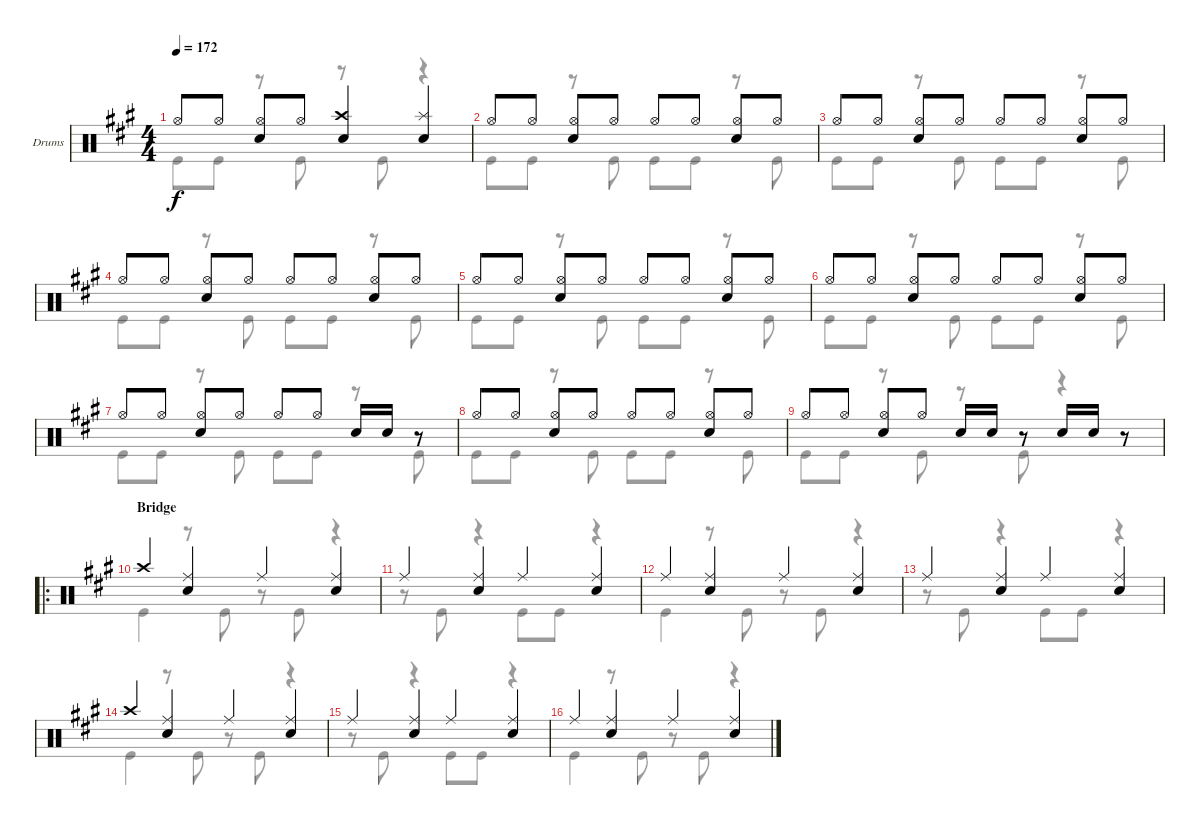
\defaultSystemsLayout 4
\bracketExtendMode groupsimilarinstruments
\firstSystemTrackNameOrientation horizontal
\otherSystemsTrackNameOrientation horizontal
\track ("Taylor Hawkins" "Drums") {instrument percussion}
\staff {score}
\articulation defaults
\voice
\ts (4 4)
\tempo 172
\clef neutral
\ks a "Hi-Hat (open)".8{dy f} "Hi-Hat (open)".8
("Hi-Hat (open)" "Snare (hit) 2").8 "Hi-Hat (open)".8 ("Snare (hit) 2" "Crash high (hit)").4 ("Snare (hit) 2" "Splash (hit)").4 |
"Hi-Hat (open)".8 "Hi-Hat (open)".8 ("Hi-Hat (open)" "Snare (hit) 2").8 "Hi-Hat (open)".8 "Hi-Hat (open)".8 "Hi-Hat (open)".8 ("Hi-Hat (open)" "Snare (hit) 2").8 "Hi-Hat (open)".8 |
"Hi-Hat (open)".8 "Hi-Hat (open)".8 ("Hi-Hat (open)" "Snare (hit) 2").8 "Hi-Hat (open)".8 "Hi-Hat (open)".8 "Hi-Hat (open)".8 ("Hi-Hat (open)" "Snare (hit) 2").8 "Hi-Hat (open)".8 |
"Hi-Hat (open)".8 "Hi-Hat (open)".8 ("Hi-Hat (open)" "Snare (hit) 2").8 "Hi-Hat (open)".8 "Hi-Hat (open)".8 "Hi-Hat (open)".8 ("Hi-Hat (open)" "Snare (hit) 2").8 "Hi-Hat (open)".8 |
"Hi-Hat (open)".8 "Hi-Hat (open)".8 ("Hi-Hat (open)" "Snare (hit) 2").8 "Hi-Hat (open)".8 "Hi-Hat (open)".8 "Hi-Hat (open)".8 ("Snare (hit) 2" "Hi-Hat (open)").8 "Hi-Hat (open)".8 |
"Hi-Hat (open)".8 "Hi-Hat (open)".8 ("Hi-Hat (open)" "Snare (hit) 2").8 "Hi-Hat (open)".8 "Hi-Hat (open)".8 "Hi-Hat (open)".8 ("Hi-Hat (open)" "Snare (hit) 2").8 "Hi-Hat (open)".8 |
"Hi-Hat (open)".8 "Hi-Hat (open)".8 ("Hi-Hat (open)" "Snare (hit) 2").8 "Hi-Hat (open)".8 "Hi-Hat (open)".8 "Hi-Hat (open)".8 "Snare (hit) 2".16 "Snare (hit) 2".16 r.8 |
\scale
0.333333 "Hi-Hat (open)".8 "Hi-Hat (open)".8 ("Hi-Hat (open)" "Snare (hit) 2").8 "Hi-Hat (open)".8 "Hi-Hat (open)".8 "Hi-Hat (open)".8 ("Hi-Hat (open)" "Snare (hit) 2").8 "Hi-Hat (open)".8 |
\scale
0.333333 "Hi-Hat (open)".8 "Hi-Hat (open)".8 ("Hi-Hat (open)" "Snare (hit) 2").8 "Hi-Hat (open)".8 "Snare (hit) 2".16 "Snare (hit) 2".16 r.8 "Snare (hit) 2".16 "Snare (hit) 2".16 r.8 |
\ro
\section ("" "Bridge")
\scale
0.333333 "Crash high (hit)".4 ("Snare (hit) 2" "Ride (middle)").4 "Ride (middle)".4 ("Snare (hit) 2" "Ride (middle)").4 |
\scale
0.333333 "Ride (middle)".4 ("Snare (hit) 2" "Ride (middle)").4 "Ride (middle)".4 ("Snare (hit) 2" "Ride (middle)").4 |
\scale
0.333333 "Ride (middle)".4 ("Snare (hit) 2" "Ride (middle)").4 "Ride (middle)".4 ("Snare (hit) 2" "Ride (middle)").4 |
\scale
0.333333 "Ride (middle)".4 ("Snare (hit) 2" "Ride (middle)").4 "Ride (middle)".4 ("Snare (hit) 2" "Ride (middle)").4 |
\scale
0.333333 "Crash high (hit)".4 ("Snare (hit) 2" "Ride (middle)").4 "Ride (middle)".4 ("Snare (hit) 2" "Ride (middle)").4 |
\scale
0.333333 "Ride (middle)".4 ("Snare (hit) 2" "Ride (middle)").4 "Ride (middle)".4 ("Snare (hit) 2" "Ride (middle)").4 |
\scale
0.333333 "Ride (middle)".4 ("Snare (hit) 2" "Ride (middle)").4 "Ride (middle)".4 ("Snare (hit) 2" "Ride (middle)").4
\voice
\clef neutral
\ottava regular
\simile none
\ks a "Kick (hit)".8{dy f} "Kick (hit)".8
r.8 "Kick (hit)".8 r.8 "Kick (hit)".8 r.4 |
"Kick (hit)".8 "Kick (hit)".8 r.8 "Kick (hit)".8 "Kick (hit)".8 "Kick (hit)".8 r.8 "Kick (hit)".8 |
"Kick (hit)".8 "Kick (hit)".8 r.8 "Kick (hit)".8 "Kick (hit)".8 "Kick (hit)".8 r.8 "Kick (hit)".8 |
"Kick (hit)".8 "Kick (hit)".8 r.8 "Kick (hit)".8 "Kick (hit)".8 "Kick (hit)".8 r.8 "Kick (hit)".8 |
"Kick (hit)".8 "Kick (hit)".8 r.8 "Kick (hit)".8 "Kick (hit)".8 "Kick (hit)".8 r.8 "Kick (hit)".8 |
"Kick (hit)".8 "Kick (hit)".8 r.8 "Kick (hit)".8 "Kick (hit)".8 "Kick (hit)".8 r.8 "Kick (hit)".8 |
"Kick (hit)".8 "Kick (hit)".8 r.8 "Kick (hit)".8 "Kick (hit)".8 "Kick (hit)".8 r.8 "Kick (hit)".8 |
\scale
0.333333 "Kick (hit)".8 "Kick (hit)".8 r.8 "Kick (hit)".8 "Kick (hit)".8 "Kick (hit)".8 r.8 "Kick (hit)".8 |
\scale
0.333333 "Kick (hit)".8 "Kick (hit)".8 r.8 "Kick (hit)".8 r.8 "Kick (hit)".8 r.4 |
\scale
0.333333 "Kick (hit)".4 r.8 "Kick (hit)".8 r.8 "Kick (hit)".8 r.4 |
\scale
0.333333 r.8 "Kick (hit)".8 r.4 "Kick (hit)".8 "Kick (hit)".8 r.4 |
\scale
0.333333 "Kick (hit)".4 r.8 "Kick (hit)".8 r.8 "Kick (hit)".8 r.4 |
\scale
0.333333 r.8 "Kick (hit)".8 r.4 "Kick (hit)".8 "Kick (hit)".8 r.4 |
\scale
0.333333 "Kick (hit)".4 r.8 "Kick (hit)".8 r.8 "Kick (hit)".8 r.4 |
\scale
0.333333 r.8 "Kick (hit)".8 r.4 "Kick (hit)".8 "Kick (hit)".8 r.4 |
\scale
0.333333 "Kick (hit)".4 r.8 "Kick (hit)".8 r.8 "Kick (hit)".8 r.4
